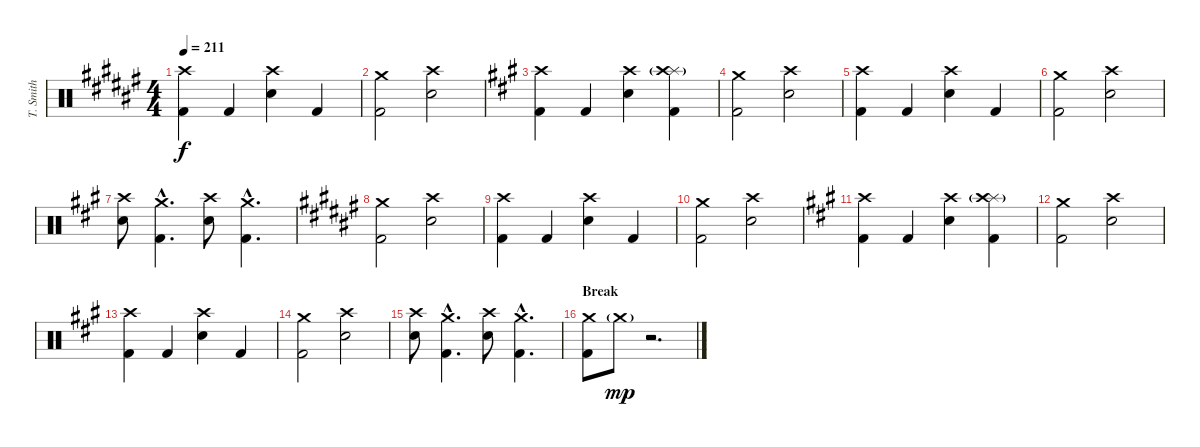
\track ("T. Smith" "T. Smith") {instrument percussion}
\staff {score}
\articulation defaults
\ts (4 4)
\tempo 211
\clef neutral
\ks d#minor
("Crash high (hit)" "Kick (hit) 2").4{dy f} "Kick (hit) 2".4 ("Crash high (hit)" "Electric Snare (hit)").4 "Kick (hit) 2".4 |
("Crash medium (hit)" "Kick (hit) 2").2 ("Crash high (hit)" "Electric Snare (hit)").2 |
\ks f#minor
("Crash high (hit)" "Kick (hit) 2").4 "Kick (hit) 2".4 ("Crash high (hit)" "Electric Snare (hit)").4 ("Splash (hit)" "Crash high (hit)"{g} "Kick (hit) 2").4 |
("Crash medium (hit)" "Kick (hit) 2").2 ("Crash high (hit)" "Electric Snare (hit)").2 |
("Crash high (hit)" "Kick (hit) 2").4 "Kick (hit) 2".4 ("Crash high (hit)" "Electric Snare (hit)").4 "Kick (hit) 2".4 |
("Crash medium (hit)" "Kick (hit) 2").2 ("Crash high (hit)" "Electric Snare (hit)").2 |
("Crash high (hit)" "Electric Snare (hit)").8 ("Crash medium (hit)"{hac} "Kick (hit) 2"{hac}).4{d} ("Crash high (hit)" "Electric Snare (hit)").8 ("Crash medium (hit)"{hac} "Kick (hit) 2"{hac}).4{d} |
\ks d#minor
("Crash medium (hit)" "Kick (hit) 2").2 ("Crash high (hit)" "Electric Snare (hit)").2 |
("Crash high (hit)" "Kick (hit) 2").4 "Kick (hit) 2".4 ("Crash high (hit)" "Electric Snare (hit)").4 "Kick (hit) 2".4 |
("Crash medium (hit)" "Kick (hit) 2").2 ("Crash high (hit)" "Electric Snare (hit)").2 |
\ks f#minor
("Crash high (hit)" "Kick (hit) 2").4 "Kick (hit) 2".4 ("Crash high (hit)" "Electric Snare (hit)").4 ("Splash (hit)" "Crash high (hit)"{g} "Kick (hit) 2").4 |
("Crash medium (hit)" "Kick (hit) 2").2 ("Crash high (hit)" "Electric Snare (hit)").2 |
("Crash high (hit)" "Kick (hit) 2").4 "Kick (hit) 2".4 ("Crash high (hit)" "Electric Snare (hit)").4 "Kick (hit) 2".4 |
("Crash medium (hit)" "Kick (hit) 2").2 ("Crash high (hit)" "Electric Snare (hit)").2 |
("Crash high (hit)" "Electric Snare (hit)").8 ("Crash medium (hit)"{hac} "Kick (hit) 2"{hac}).4{d} ("Crash high (hit)" "Electric Snare (hit)").8 ("Crash medium (hit)"{hac} "Kick (hit) 2"{hac}).4{d} |
\section ("" "Break")
("Crash medium (hit)" "Kick (hit) 2").8 "Crash medium (hit)"{g}.8{dy mp volume 4} r.2{d}
